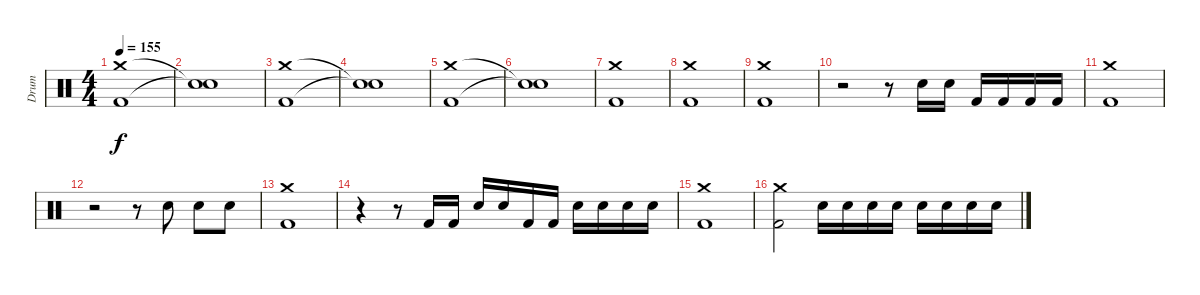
\track ("Drum" "Drum") {instrument percussion}
\staff {score}
\articulation defaults
\ts (4 4)
\tempo 155
\clef neutral
\ks c
("Kick (hit) 2" "Crash medium (hit)").1{dy f} |
("Snare (hit)"{t} "Snare (hit)"{t}).1 |
("Kick (hit) 2" "Crash medium (hit)").1 |
("Snare (hit)"{t} "Snare (hit)"{t}).1 |
("Kick (hit) 2" "Crash medium (hit)").1 |
("Snare (hit)"{t} "Snare (hit)"{t}).1 |
("Kick (hit) 2" "Crash medium (hit)").1 |
("Kick (hit) 2" "Crash medium (hit)").1 |
("Kick (hit) 2" "Crash medium (hit)").1 |
r.2 r.8 "Electric Snare (hit)".16 "Electric Snare (hit)".16 "Kick (hit) 2".16 "Kick (hit) 2".16 "Kick (hit) 2".16 "Kick (hit) 2".16 |
("Kick (hit) 2" "Crash medium (hit)").1 |
r.2 r.8 "Electric Snare (hit)".8 "Electric Snare (hit)".8 "Electric Snare (hit)".8 |
("Kick (hit) 2" "Crash medium (hit)").1 |
r.4 r.8 "Kick (hit) 2".16 "Kick (hit) 2".16 "Electric Snare (hit)".16 "Electric Snare (hit)".16 "Kick (hit) 2".16 "Kick (hit) 2".16 "Electric Snare (hit)".16 "Electric Snare (hit)".16 "Electric Snare (hit)".16 "Electric Snare (hit)".16 |
("Kick (hit) 2" "Crash medium (hit)").1 |
("Kick (hit) 2" "Crash medium (hit)").2 "Electric Snare (hit)".16 "Electric Snare (hit)".16 "Electric Snare (hit)".16 "Electric Snare (hit)".16 "Electric Snare (hit)".16 "Electric Snare (hit)".16 "Electric Snare (hit)".16 "Electric Snare (hit)".16
